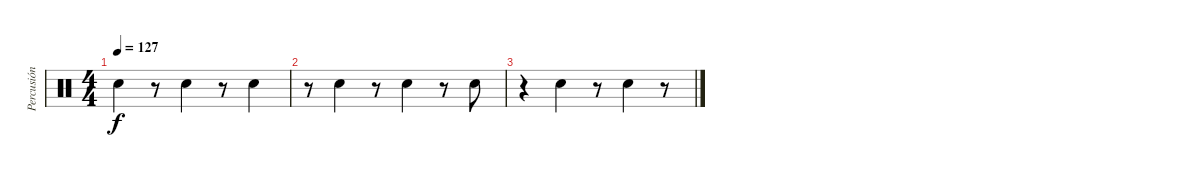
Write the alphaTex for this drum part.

\track ("Percusión" "Percusión") {instrument percussion}
\staff {score}
\articulation defaults
\ts (4 4)
\tempo 127
\clef neutral
\ks c "Hand Clap (hit)".4{dy f}
r.8 "Hand Clap (hit)".4 r.8 "Hand Clap (hit)".4 |
r.8 "Hand Clap (hit)".4 r.8 "Hand Clap (hit)".4 r.8 "Hand Clap (hit)".8 |
r.4 "Hand Clap (hit)".4 r.8 "Hand Clap (hit)".4 r.8
